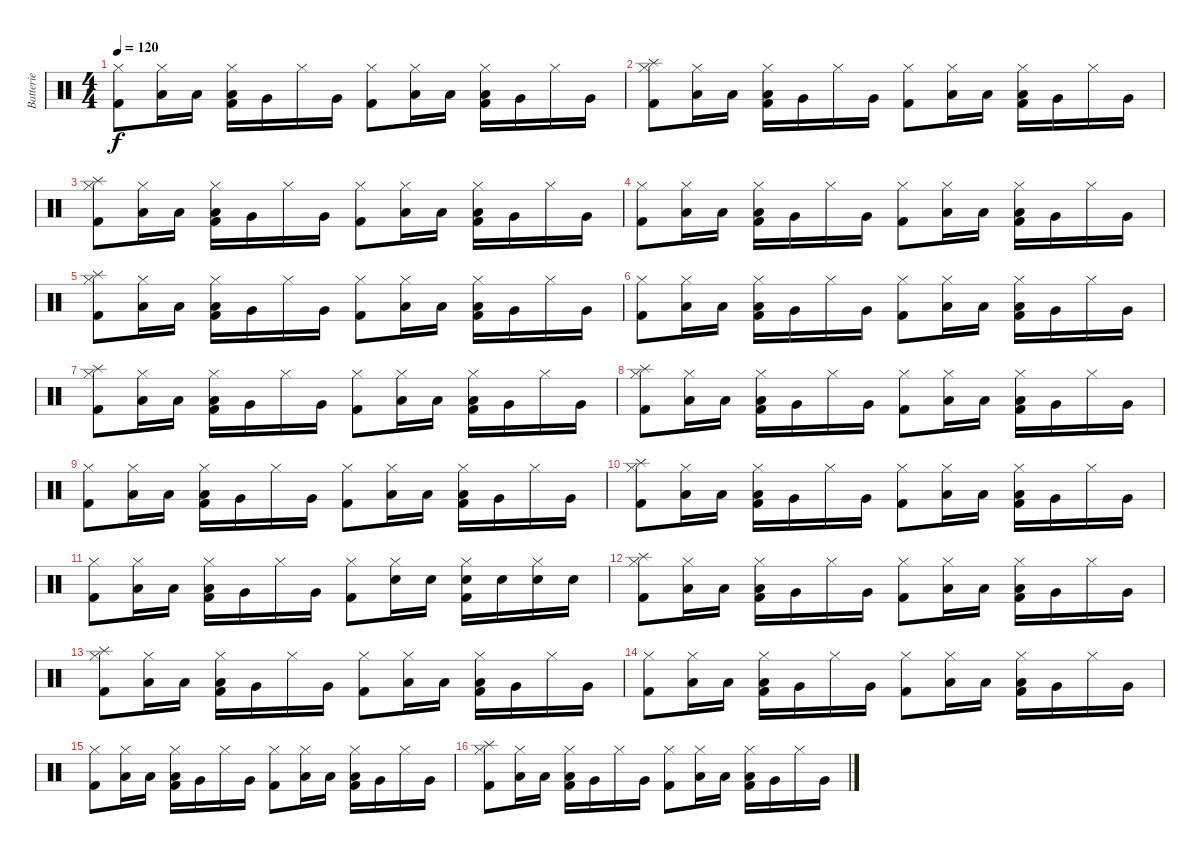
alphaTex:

\track ("Batterie" "Batterie") {instrument percussion}
\staff {score}
\articulation defaults
\ts (4 4)
\tempo 120
\clef neutral
\ks c
("Hi-Hat (closed)" "Kick (hit) 2").8{dy f} ("Hi-Hat (closed)" "Low Tom (hit)").16 "Low Tom (hit)".16 ("Hi-Hat (closed)" "Low Tom (hit)" "Kick (hit) 2").16 "Very Low Tom (hit)".16 "Hi-Hat (closed)".16 "Very Low Tom (hit)".16 ("Hi-Hat (closed)" "Kick (hit) 2").8 ("Hi-Hat (closed)" "Low Tom (hit)").16 "Low Tom (hit)".16 ("Hi-Hat (closed)" "Low Tom (hit)" "Kick (hit) 2").16 "Very Low Tom (hit)".16 "Hi-Hat (closed)".16 "Very Low Tom (hit)".16 |
("Splash (hit)" "Hi-Hat (closed)" "Kick (hit) 2").8 ("Hi-Hat (closed)" "Low Tom (hit)").16 "Low Tom (hit)".16 ("Hi-Hat (closed)" "Low Tom (hit)" "Kick (hit) 2").16 "Very Low Tom (hit)".16 "Hi-Hat (closed)".16 "Very Low Tom (hit)".16 ("Hi-Hat (closed)" "Kick (hit) 2").8 ("Hi-Hat (closed)" "Low Tom (hit)").16 "Low Tom (hit)".16 ("Hi-Hat (closed)" "Low Tom (hit)" "Kick (hit) 2").16 "Very Low Tom (hit)".16 "Hi-Hat (closed)".16 "Very Low Tom (hit)".16 |
("Splash (hit)" "Hi-Hat (closed)" "Kick (hit) 2").8 ("Hi-Hat (closed)" "Low Tom (hit)").16 "Low Tom (hit)".16 ("Hi-Hat (closed)" "Low Tom (hit)" "Kick (hit) 2").16 "Very Low Tom (hit)".16 "Hi-Hat (closed)".16 "Very Low Tom (hit)".16 ("Hi-Hat (closed)" "Kick (hit) 2").8 ("Hi-Hat (closed)" "Low Tom (hit)").16 "Low Tom (hit)".16 ("Hi-Hat (closed)" "Low Tom (hit)" "Kick (hit) 2").16 "Very Low Tom (hit)".16 "Hi-Hat (closed)".16 "Very Low Tom (hit)".16 |
("Hi-Hat (closed)" "Kick (hit) 2").8 ("Hi-Hat (closed)" "Low Tom (hit)").16 "Low Tom (hit)".16 ("Hi-Hat (closed)" "Low Tom (hit)" "Kick (hit) 2").16 "Very Low Tom (hit)".16 "Hi-Hat (closed)".16 "Very Low Tom (hit)".16 ("Hi-Hat (closed)" "Kick (hit) 2").8 ("Hi-Hat (closed)" "Low Tom (hit)").16 "Low Tom (hit)".16 ("Hi-Hat (closed)" "Low Tom (hit)" "Kick (hit) 2").16 "Very Low Tom (hit)".16 "Hi-Hat (closed)".16 "Very Low Tom (hit)".16 |
("Splash (hit)" "Hi-Hat (closed)" "Kick (hit) 2").8 ("Hi-Hat (closed)" "Low Tom (hit)").16 "Low Tom (hit)".16 ("Hi-Hat (closed)" "Low Tom (hit)" "Kick (hit) 2").16 "Very Low Tom (hit)".16 "Hi-Hat (closed)".16 "Very Low Tom (hit)".16 ("Hi-Hat (closed)" "Kick (hit) 2").8 ("Hi-Hat (closed)" "Low Tom (hit)").16 "Low Tom (hit)".16 ("Hi-Hat (closed)" "Low Tom (hit)" "Kick (hit) 2").16 "Very Low Tom (hit)".16 "Hi-Hat (closed)".16 "Very Low Tom (hit)".16 |
("Hi-Hat (closed)" "Kick (hit) 2").8 ("Hi-Hat (closed)" "Low Tom (hit)").16 "Low Tom (hit)".16 ("Hi-Hat (closed)" "Low Tom (hit)" "Kick (hit) 2").16 "Very Low Tom (hit)".16 "Hi-Hat (closed)".16 "Very Low Tom (hit)".16 ("Hi-Hat (closed)" "Kick (hit) 2").8 ("Hi-Hat (closed)" "Low Tom (hit)").16 "Low Tom (hit)".16 ("Hi-Hat (closed)" "Low Tom (hit)" "Kick (hit) 2").16 "Very Low Tom (hit)".16 "Hi-Hat (closed)".16 "Very Low Tom (hit)".16 |
("Splash (hit)" "Hi-Hat (closed)" "Kick (hit) 2").8 ("Hi-Hat (closed)" "Low Tom (hit)").16 "Low Tom (hit)".16 ("Hi-Hat (closed)" "Low Tom (hit)" "Kick (hit) 2").16 "Very Low Tom (hit)".16 "Hi-Hat (closed)".16 "Very Low Tom (hit)".16 ("Hi-Hat (closed)" "Kick (hit) 2").8 ("Hi-Hat (closed)" "Low Tom (hit)").16 "Low Tom (hit)".16 ("Hi-Hat (closed)" "Low Tom (hit)" "Kick (hit) 2").16 "Very Low Tom (hit)".16 "Hi-Hat (closed)".16 "Very Low Tom (hit)".16 |
("Splash (hit)" "Hi-Hat (closed)" "Kick (hit) 2").8 ("Hi-Hat (closed)" "Low Tom (hit)").16 "Low Tom (hit)".16 ("Hi-Hat (closed)" "Low Tom (hit)" "Kick (hit) 2").16 "Very Low Tom (hit)".16 "Hi-Hat (closed)".16 "Very Low Tom (hit)".16 ("Hi-Hat (closed)" "Kick (hit) 2").8 ("Hi-Hat (closed)" "Low Tom (hit)").16 "Low Tom (hit)".16 ("Hi-Hat (closed)" "Low Tom (hit)" "Kick (hit) 2").16 "Very Low Tom (hit)".16 "Hi-Hat (closed)".16 "Very Low Tom (hit)".16 |
("Hi-Hat (closed)" "Kick (hit) 2").8 ("Hi-Hat (closed)" "Low Tom (hit)").16 "Low Tom (hit)".16 ("Hi-Hat (closed)" "Low Tom (hit)" "Kick (hit) 2").16 "Very Low Tom (hit)".16 "Hi-Hat (closed)".16 "Very Low Tom (hit)".16 ("Hi-Hat (closed)" "Kick (hit) 2").8 ("Hi-Hat (closed)" "Low Tom (hit)").16 "Low Tom (hit)".16 ("Hi-Hat (closed)" "Low Tom (hit)" "Kick (hit) 2").16 "Very Low Tom (hit)".16 "Hi-Hat (closed)".16 "Very Low Tom (hit)".16 |
("Splash (hit)" "Hi-Hat (closed)" "Kick (hit) 2").8 ("Hi-Hat (closed)" "Low Tom (hit)").16 "Low Tom (hit)".16 ("Hi-Hat (closed)" "Low Tom (hit)" "Kick (hit) 2").16 "Very Low Tom (hit)".16 "Hi-Hat (closed)".16 "Very Low Tom (hit)".16 ("Hi-Hat (closed)" "Kick (hit) 2").8 ("Hi-Hat (closed)" "Low Tom (hit)").16 "Low Tom (hit)".16 ("Hi-Hat (closed)" "Low Tom (hit)" "Kick (hit) 2").16 "Very Low Tom (hit)".16 "Hi-Hat (closed)".16 "Very Low Tom (hit)".16 |
("Hi-Hat (closed)" "Kick (hit) 2").8 ("Hi-Hat (closed)" "Low Tom (hit)").16 "Low Tom (hit)".16 ("Hi-Hat (closed)" "Low Tom (hit)" "Kick (hit) 2").16 "Very Low Tom (hit)".16 "Hi-Hat (closed)".16 "Very Low Tom (hit)".16 ("Hi-Hat (closed)" "Kick (hit) 2").8 ("Hi-Hat (closed)" "Snare (hit) 2").16 "Snare (hit) 2".16 ("Hi-Hat (closed)" "Snare (hit) 2" "Kick (hit) 2").16 "Snare (hit) 2".16 ("Hi-Hat (closed)" "Snare (hit) 2").16 "Snare (hit) 2".16 |
("Splash (hit)" "Hi-Hat (closed)" "Kick (hit) 2").8 ("Hi-Hat (closed)" "Low Tom (hit)").16 "Low Tom (hit)".16 ("Hi-Hat (closed)" "Low Tom (hit)" "Kick (hit) 2").16 "Very Low Tom (hit)".16 "Hi-Hat (closed)".16 "Very Low Tom (hit)".16 ("Hi-Hat (closed)" "Kick (hit) 2").8 ("Hi-Hat (closed)" "Low Tom (hit)").16 "Low Tom (hit)".16 ("Hi-Hat (closed)" "Low Tom (hit)" "Kick (hit) 2").16 "Very Low Tom (hit)".16 "Hi-Hat (closed)".16 "Very Low Tom (hit)".16 |
("Splash (hit)" "Hi-Hat (closed)" "Kick (hit) 2").8 ("Hi-Hat (closed)" "Low Tom (hit)").16 "Low Tom (hit)".16 ("Hi-Hat (closed)" "Low Tom (hit)" "Kick (hit) 2").16 "Very Low Tom (hit)".16 "Hi-Hat (closed)".16 "Very Low Tom (hit)".16 ("Hi-Hat (closed)" "Kick (hit) 2").8 ("Hi-Hat (closed)" "Low Tom (hit)").16 "Low Tom (hit)".16 ("Hi-Hat (closed)" "Low Tom (hit)" "Kick (hit) 2").16 "Very Low Tom (hit)".16 "Hi-Hat (closed)".16 "Very Low Tom (hit)".16 |
("Hi-Hat (closed)" "Kick (hit) 2").8 ("Hi-Hat (closed)" "Low Tom (hit)").16 "Low Tom (hit)".16 ("Hi-Hat (closed)" "Low Tom (hit)" "Kick (hit) 2").16 "Very Low Tom (hit)".16 "Hi-Hat (closed)".16 "Very Low Tom (hit)".16 ("Hi-Hat (closed)" "Kick (hit) 2").8 ("Hi-Hat (closed)" "Low Tom (hit)").16 "Low Tom (hit)".16 ("Hi-Hat (closed)" "Low Tom (hit)" "Kick (hit) 2").16 "Very Low Tom (hit)".16 "Hi-Hat (closed)".16 "Very Low Tom (hit)".16 |
("Hi-Hat (closed)" "Kick (hit) 2").8 ("Hi-Hat (closed)" "Low Tom (hit)").16 "Low Tom (hit)".16 ("Hi-Hat (closed)" "Low Tom (hit)" "Kick (hit) 2").16 "Very Low Tom (hit)".16 "Hi-Hat (closed)".16 "Very Low Tom (hit)".16 ("Hi-Hat (closed)" "Kick (hit) 2").8 ("Hi-Hat (closed)" "Low Tom (hit)").16 "Low Tom (hit)".16 ("Hi-Hat (closed)" "Low Tom (hit)" "Kick (hit) 2").16 "Very Low Tom (hit)".16 "Hi-Hat (closed)".16 "Very Low Tom (hit)".16 |
("Splash (hit)" "Hi-Hat (closed)" "Kick (hit) 2").8 ("Hi-Hat (closed)" "Low Tom (hit)").16 "Low Tom (hit)".16 ("Hi-Hat (closed)" "Low Tom (hit)" "Kick (hit) 2").16 "Very Low Tom (hit)".16 "Hi-Hat (closed)".16 "Very Low Tom (hit)".16 ("Hi-Hat (closed)" "Kick (hit) 2").8 ("Hi-Hat (closed)" "Low Tom (hit)").16 "Low Tom (hit)".16 ("Hi-Hat (closed)" "Low Tom (hit)" "Kick (hit) 2").16 "Very Low Tom (hit)".16 "Hi-Hat (closed)".16 "Very Low Tom (hit)".16
